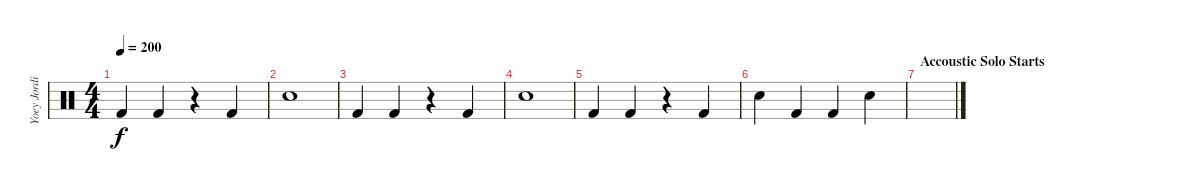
\track ("Yoey Jordison" "Yoey Jordi") {instrument percussion}
\staff {score}
\articulation defaults
\ts (4 4)
\tempo 200
\clef neutral
\ks c "Kick (hit) 2".4{dy f} "Kick (hit) 2".4
r.4 "Kick (hit) 2".4 |
"Snare (hit) 2".1 |
"Kick (hit) 2".4 "Kick (hit) 2".4 r.4 "Kick (hit) 2".4 |
"Snare (hit) 2".1 |
"Kick (hit) 2".4 "Kick (hit) 2".4 r.4 "Kick (hit) 2".4 |
"Snare (hit) 2".4 "Kick (hit) 2".4 "Kick (hit) 2".4 "Snare (hit) 2".4 |
\section ("" "Accoustic Solo Starts")
